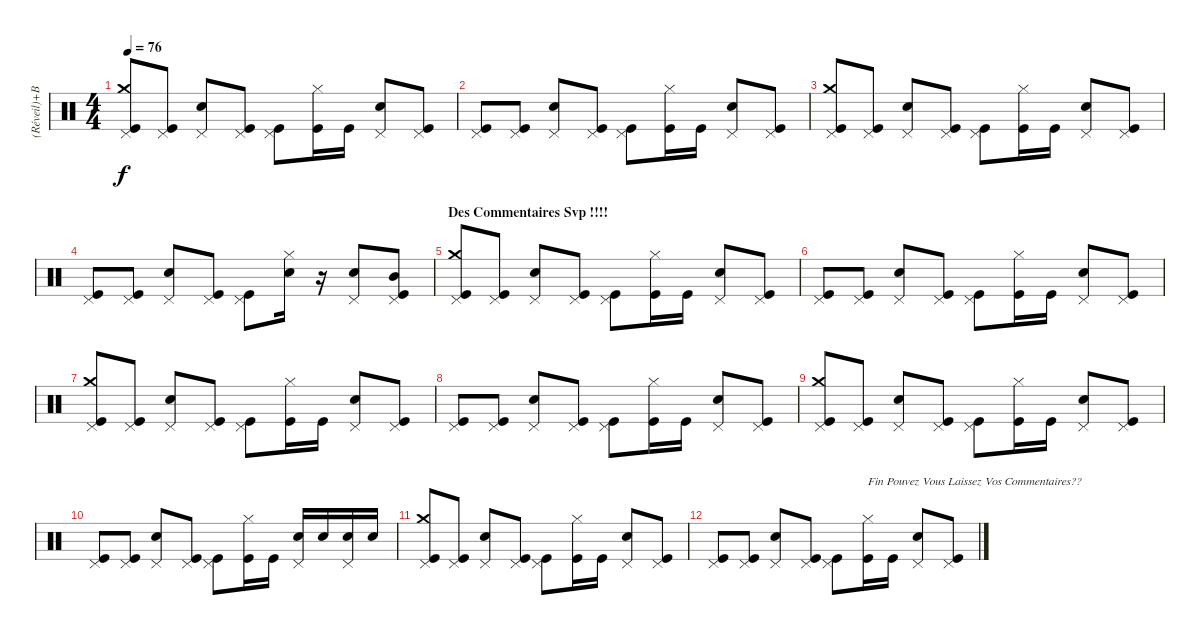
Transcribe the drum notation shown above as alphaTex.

\track ("(Réveil)+Batterie" "(Réveil)+B") {instrument percussion}
\staff {score}
\articulation defaults
\ts (4 4)
\tempo 76
\clef neutral
\ks c
("Pedal Hi-Hat (hit)" "Crash medium (hit)" "Kick (hit)").8{dy f volume 16} ("Pedal Hi-Hat (hit)" "Kick (hit)").8 ("Pedal Hi-Hat (hit)" "Electric Snare (hit)").8 ("Pedal Hi-Hat (hit)" "Kick (hit)").8 ("Pedal Hi-Hat (hit)" "Kick (hit)").8 ("Hi-Hat (closed)" "Kick (hit)").16 "Kick (hit)".16 ("Pedal Hi-Hat (hit)" "Electric Snare (hit)").8 ("Pedal Hi-Hat (hit)" "Kick (hit)").8 |
("Pedal Hi-Hat (hit)" "Kick (hit)").8 ("Pedal Hi-Hat (hit)" "Kick (hit)").8 ("Pedal Hi-Hat (hit)" "Electric Snare (hit)").8 ("Pedal Hi-Hat (hit)" "Kick (hit)").8 ("Pedal Hi-Hat (hit)" "Kick (hit)").8 ("Hi-Hat (closed)" "Kick (hit)").16 "Kick (hit)".16 ("Pedal Hi-Hat (hit)" "Electric Snare (hit)").8 ("Pedal Hi-Hat (hit)" "Kick (hit)").8 |
("Pedal Hi-Hat (hit)" "Crash medium (hit)" "Kick (hit)").8 ("Pedal Hi-Hat (hit)" "Kick (hit)").8 ("Pedal Hi-Hat (hit)" "Electric Snare (hit)").8 ("Pedal Hi-Hat (hit)" "Kick (hit)").8 ("Pedal Hi-Hat (hit)" "Kick (hit)").8 ("Hi-Hat (closed)" "Kick (hit)").16 "Kick (hit)".16 ("Pedal Hi-Hat (hit)" "Electric Snare (hit)").8 ("Pedal Hi-Hat (hit)" "Kick (hit)").8 |
("Pedal Hi-Hat (hit)" "Kick (hit)").8 ("Pedal Hi-Hat (hit)" "Kick (hit)").8 ("Pedal Hi-Hat (hit)" "Electric Snare (hit)").8 ("Pedal Hi-Hat (hit)" "Kick (hit)").8 ("Pedal Hi-Hat (hit)" "Kick (hit)").8 ("Hi-Hat (closed)" "Electric Snare (hit)").16 r.16 ("Pedal Hi-Hat (hit)" "Electric Snare (hit)").8 ("Pedal Hi-Hat (hit)" "Mid Tom (hit)" "Kick (hit)").8 |
\section ("" "Des Commentaires Svp !!!!")
("Pedal Hi-Hat (hit)" "Crash medium (hit)" "Kick (hit)").8{volume 16} ("Pedal Hi-Hat (hit)" "Kick (hit)").8 ("Pedal Hi-Hat (hit)" "Electric Snare (hit)").8 ("Pedal Hi-Hat (hit)" "Kick (hit)").8 ("Pedal Hi-Hat (hit)" "Kick (hit)").8 ("Hi-Hat (closed)" "Kick (hit)").16 "Kick (hit)".16 ("Pedal Hi-Hat (hit)" "Electric Snare (hit)").8 ("Pedal Hi-Hat (hit)" "Kick (hit)").8 |
("Pedal Hi-Hat (hit)" "Kick (hit)").8 ("Pedal Hi-Hat (hit)" "Kick (hit)").8 ("Pedal Hi-Hat (hit)" "Electric Snare (hit)").8 ("Pedal Hi-Hat (hit)" "Kick (hit)").8 ("Pedal Hi-Hat (hit)" "Kick (hit)").8 ("Hi-Hat (closed)" "Kick (hit)").16 "Kick (hit)".16 ("Pedal Hi-Hat (hit)" "Electric Snare (hit)").8 ("Pedal Hi-Hat (hit)" "Kick (hit)").8 |
("Pedal Hi-Hat (hit)" "Crash medium (hit)" "Kick (hit)").8{volume 16} ("Pedal Hi-Hat (hit)" "Kick (hit)").8 ("Pedal Hi-Hat (hit)" "Electric Snare (hit)").8 ("Pedal Hi-Hat (hit)" "Kick (hit)").8 ("Pedal Hi-Hat (hit)" "Kick (hit)").8 ("Hi-Hat (closed)" "Kick (hit)").16 "Kick (hit)".16 ("Pedal Hi-Hat (hit)" "Electric Snare (hit)").8 ("Pedal Hi-Hat (hit)" "Kick (hit)").8 |
("Pedal Hi-Hat (hit)" "Kick (hit)").8 ("Pedal Hi-Hat (hit)" "Kick (hit)").8 ("Pedal Hi-Hat (hit)" "Electric Snare (hit)").8 ("Pedal Hi-Hat (hit)" "Kick (hit)").8 ("Pedal Hi-Hat (hit)" "Kick (hit)").8 ("Hi-Hat (closed)" "Kick (hit)").16 "Kick (hit)".16 ("Pedal Hi-Hat (hit)" "Electric Snare (hit)").8 ("Pedal Hi-Hat (hit)" "Kick (hit)").8 |
("Pedal Hi-Hat (hit)" "Crash medium (hit)" "Kick (hit)").8{volume 0} ("Pedal Hi-Hat (hit)" "Kick (hit)").8 ("Pedal Hi-Hat (hit)" "Electric Snare (hit)").8 ("Pedal Hi-Hat (hit)" "Kick (hit)").8 ("Pedal Hi-Hat (hit)" "Kick (hit)").8 ("Hi-Hat (closed)" "Kick (hit)").16 "Kick (hit)".16 ("Pedal Hi-Hat (hit)" "Electric Snare (hit)").8 ("Pedal Hi-Hat (hit)" "Kick (hit)").8 |
("Pedal Hi-Hat (hit)" "Kick (hit)").8 ("Pedal Hi-Hat (hit)" "Kick (hit)").8 ("Pedal Hi-Hat (hit)" "Electric Snare (hit)").8 ("Pedal Hi-Hat (hit)" "Kick (hit)").8 ("Pedal Hi-Hat (hit)" "Kick (hit)").8 ("Hi-Hat (closed)" "Kick (hit)").16 "Kick (hit)".16 ("Pedal Hi-Hat (hit)" "Electric Snare (hit)").16 "Electric Snare (hit)".16 ("Pedal Hi-Hat (hit)" "Electric Snare (hit)").16 "Electric Snare (hit)".16 |
("Pedal Hi-Hat (hit)" "Crash medium (hit)" "Kick (hit)").8 ("Pedal Hi-Hat (hit)" "Kick (hit)").8 ("Pedal Hi-Hat (hit)" "Electric Snare (hit)").8 ("Pedal Hi-Hat (hit)" "Kick (hit)").8 ("Pedal Hi-Hat (hit)" "Kick (hit)").8 ("Hi-Hat (closed)" "Kick (hit)").16 "Kick (hit)".16 ("Pedal Hi-Hat (hit)" "Electric Snare (hit)").8 ("Pedal Hi-Hat (hit)" "Kick (hit)").8 |
("Pedal Hi-Hat (hit)" "Kick (hit)").8 ("Pedal Hi-Hat (hit)" "Kick (hit)").8 ("Pedal Hi-Hat (hit)" "Electric Snare (hit)").8 ("Pedal Hi-Hat (hit)" "Kick (hit)").8 ("Pedal Hi-Hat (hit)" "Kick (hit)").8 ("Hi-Hat (closed)" "Kick (hit)").16{txt "Fin Pouvez Vous Laissez Vos Commentaires??"} "Kick (hit)".16 ("Pedal Hi-Hat (hit)" "Electric Snare (hit)").8 ("Pedal Hi-Hat (hit)" "Kick (hit)").8
